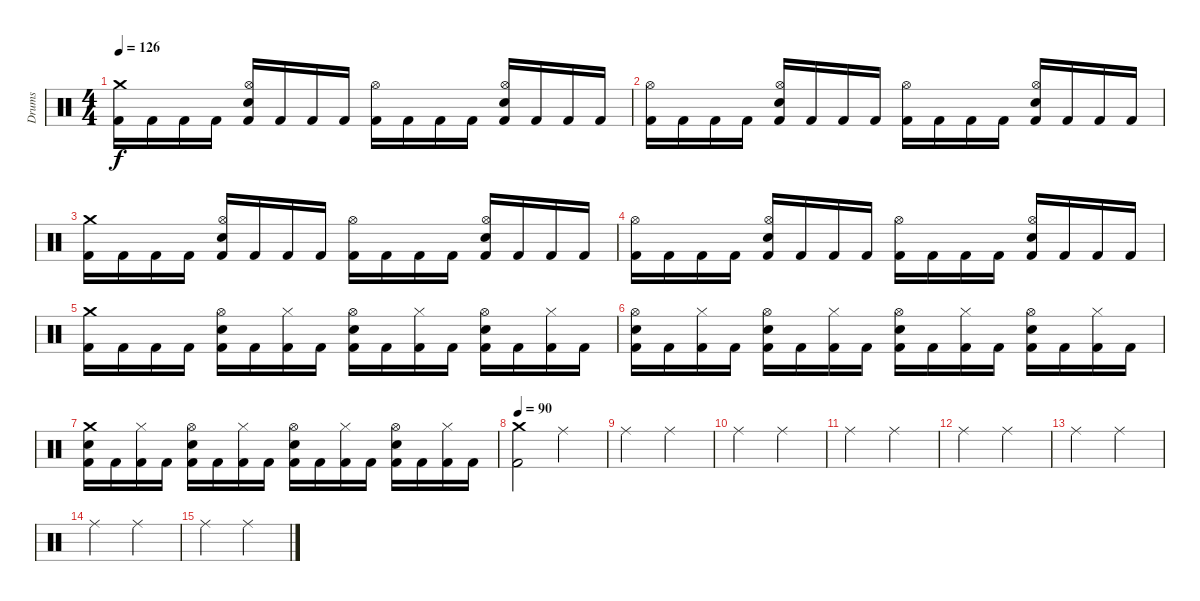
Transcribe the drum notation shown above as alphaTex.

\track ("Drums" "Drums") {instrument percussion}
\staff {score}
\articulation defaults
\ts (4 4)
\tempo 126
\clef neutral
\ks c
("Crash medium (hit)" "Kick (hit) 2").16{dy f} "Kick (hit) 2".16 "Kick (hit) 2".16 "Kick (hit) 2".16 ("Hi-Hat (open)" "Electric Snare (hit)" "Kick (hit) 2").16 "Kick (hit) 2".16 "Kick (hit) 2".16 "Kick (hit) 2".16 ("Hi-Hat (open)" "Kick (hit) 2").16 "Kick (hit) 2".16 "Kick (hit) 2".16 "Kick (hit) 2".16 ("Hi-Hat (open)" "Electric Snare (hit)" "Kick (hit) 2").16 "Kick (hit) 2".16 "Kick (hit) 2".16 "Kick (hit) 2".16 |
("Hi-Hat (open)" "Kick (hit) 2").16 "Kick (hit) 2".16 "Kick (hit) 2".16 "Kick (hit) 2".16 ("Hi-Hat (open)" "Electric Snare (hit)" "Kick (hit) 2").16 "Kick (hit) 2".16 "Kick (hit) 2".16 "Kick (hit) 2".16 ("Hi-Hat (open)" "Kick (hit) 2").16 "Kick (hit) 2".16 "Kick (hit) 2".16 "Kick (hit) 2".16 ("Hi-Hat (open)" "Electric Snare (hit)" "Kick (hit) 2").16 "Kick (hit) 2".16 "Kick (hit) 2".16 "Kick (hit) 2".16 |
("Crash medium (hit)" "Kick (hit) 2").16 "Kick (hit) 2".16 "Kick (hit) 2".16 "Kick (hit) 2".16 ("Hi-Hat (open)" "Electric Snare (hit)" "Kick (hit) 2").16 "Kick (hit) 2".16 "Kick (hit) 2".16 "Kick (hit) 2".16 ("Hi-Hat (open)" "Kick (hit) 2").16 "Kick (hit) 2".16 "Kick (hit) 2".16 "Kick (hit) 2".16 ("Hi-Hat (open)" "Electric Snare (hit)" "Kick (hit) 2").16 "Kick (hit) 2".16 "Kick (hit) 2".16 "Kick (hit) 2".16 |
("Hi-Hat (open)" "Kick (hit) 2").16 "Kick (hit) 2".16 "Kick (hit) 2".16 "Kick (hit) 2".16 ("Hi-Hat (open)" "Electric Snare (hit)" "Kick (hit) 2").16 "Kick (hit) 2".16 "Kick (hit) 2".16 "Kick (hit) 2".16 ("Hi-Hat (open)" "Kick (hit) 2").16 "Kick (hit) 2".16 "Kick (hit) 2".16 "Kick (hit) 2".16 ("Hi-Hat (open)" "Electric Snare (hit)" "Kick (hit) 2").16 "Kick (hit) 2".16 "Kick (hit) 2".16 "Kick (hit) 2".16 |
("Crash medium (hit)" "Kick (hit) 2").16 "Kick (hit) 2".16 "Kick (hit) 2".16 "Kick (hit) 2".16 ("Hi-Hat (open)" "Electric Snare (hit)" "Kick (hit) 2").16 "Kick (hit) 2".16 ("Hi-Hat (closed)" "Kick (hit) 2").16 "Kick (hit) 2".16 ("Hi-Hat (open)" "Electric Snare (hit)" "Kick (hit) 2").16 "Kick (hit) 2".16 ("Hi-Hat (closed)" "Kick (hit) 2").16 "Kick (hit) 2".16 ("Hi-Hat (open)" "Electric Snare (hit)" "Kick (hit) 2").16 "Kick (hit) 2".16 ("Hi-Hat (closed)" "Kick (hit) 2").16 "Kick (hit) 2".16 |
("Hi-Hat (open)" "Electric Snare (hit)" "Kick (hit) 2").16 "Kick (hit) 2".16 ("Hi-Hat (closed)" "Kick (hit) 2").16 "Kick (hit) 2".16 ("Hi-Hat (open)" "Electric Snare (hit)" "Kick (hit) 2").16 "Kick (hit) 2".16 ("Hi-Hat (closed)" "Kick (hit) 2").16 "Kick (hit) 2".16 ("Hi-Hat (open)" "Electric Snare (hit)" "Kick (hit) 2").16 "Kick (hit) 2".16 ("Hi-Hat (closed)" "Kick (hit) 2").16 "Kick (hit) 2".16 ("Hi-Hat (open)" "Electric Snare (hit)" "Kick (hit) 2").16 "Kick (hit) 2".16 ("Hi-Hat (closed)" "Kick (hit) 2").16 "Kick (hit) 2".16 |
("Crash medium (hit)" "Electric Snare (hit)" "Kick (hit) 2").16 "Kick (hit) 2".16 ("Hi-Hat (closed)" "Kick (hit) 2").16 "Kick (hit) 2".16 ("Hi-Hat (open)" "Electric Snare (hit)" "Kick (hit) 2").16 "Kick (hit) 2".16 ("Hi-Hat (closed)" "Kick (hit) 2").16 "Kick (hit) 2".16 ("Hi-Hat (open)" "Electric Snare (hit)" "Kick (hit) 2").16 "Kick (hit) 2".16 ("Hi-Hat (closed)" "Kick (hit) 2").16 "Kick (hit) 2".16 ("Hi-Hat (open)" "Electric Snare (hit)" "Kick (hit) 2").16 "Kick (hit) 2".16 ("Hi-Hat (closed)" "Kick (hit) 2").16 "Kick (hit) 2".16 |
\tempo 90
("Crash medium (hit)" "Kick (hit) 2").2 "Ride (middle)".2 |
"Ride (middle)".2 "Ride (middle)".2 |
"Ride (middle)".2 "Ride (middle)".2 |
"Ride (middle)".2 "Ride (middle)".2 |
"Ride (middle)".2 "Ride (middle)".2 |
"Ride (middle)".2 "Ride (middle)".2 |
"Ride (middle)".2 "Ride (middle)".2 |
"Ride (middle)".2 "Ride (middle)".2
